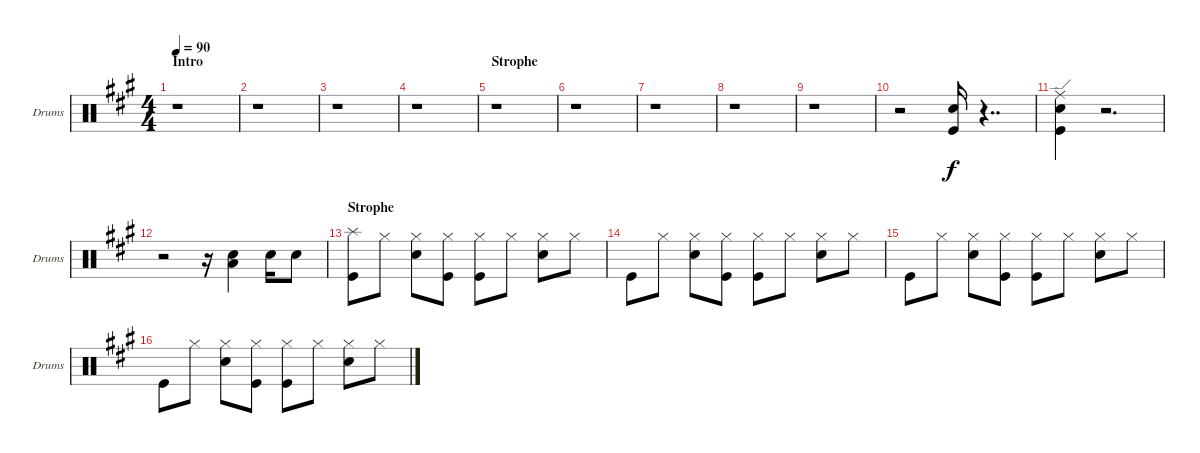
\bracketExtendMode groupsimilarinstruments
\singleTrackTrackNamePolicy allsystems
\multiTrackTrackNamePolicy allsystems
\firstSystemTrackNameOrientation horizontal
\otherSystemsTrackNameOrientation horizontal
\track ("drum" "Drums") {instrument percussion}
\staff {score}
\articulation defaults
\ts (4 4)
\section ("" "Intro")
\scale
0.480663
\tempo 90
\accidentals auto
\clef neutral
\ottava regular
\simile none
\ks a
r.1{dy f} |
\scale
0.259669 r.1 |
\scale
0.259669 r.1 |
\scale
0.333333 r.1 |
\section ("" "Strophe")
\scale
0.333333 r.1 |
\scale
0.333333 r.1 |
\scale
0.333333 r.1 |
\scale
0.333333 r.1 |
\scale
0.333333 r.1 |
\scale
0.333333 r.2 ("Snare (hit) 2" "Kick (hit)").16 r.4{dd} |
\scale
0.333333 ("Kick (hit)" "Ride (edge)" "Snare (hit) 2").4 r.2{d} |
\scale
0.333333 r.2 r.16 ("Snare (hit) 2" "Low Tom (hit)").4 "Snare (hit) 2".16 "Snare (hit) 2".8 |
\section ("" "Strophe")
\scale
0.282051 ("Kick (hit)" "Splash (hit)").8 "Hi-Hat (closed)".8 ("Hi-Hat (closed)" "Snare (hit) 2").8 ("Hi-Hat (closed)" "Kick (hit)").8 ("Hi-Hat (closed)" "Kick (hit)").8 "Hi-Hat (closed)".8 ("Hi-Hat (closed)" "Snare (hit) 2").8 "Hi-Hat (closed)".8 |
\scale
0.435897 "Kick (hit)".8 "Hi-Hat (closed)".8 ("Hi-Hat (closed)" "Snare (hit) 2").8 ("Hi-Hat (closed)" "Kick (hit)").8 ("Hi-Hat (closed)" "Kick (hit)").8 "Hi-Hat (closed)".8 ("Hi-Hat (closed)" "Snare (hit) 2").8 "Hi-Hat (closed)".8 |
\scale
0.282051 "Kick (hit)".8 "Hi-Hat (closed)".8 ("Hi-Hat (closed)" "Snare (hit) 2").8 ("Hi-Hat (closed)" "Kick (hit)").8 ("Hi-Hat (closed)" "Kick (hit)").8 "Hi-Hat (closed)".8 ("Hi-Hat (closed)" "Snare (hit) 2").8 "Hi-Hat (closed)".8 |
\scale
0.377778 "Kick (hit)".8 "Hi-Hat (closed)".8 ("Hi-Hat (closed)" "Snare (hit) 2").8 ("Hi-Hat (closed)" "Kick (hit)").8 ("Hi-Hat (closed)" "Kick (hit)").8 "Hi-Hat (closed)".8 ("Hi-Hat (closed)" "Snare (hit) 2").8 "Hi-Hat (closed)".8
